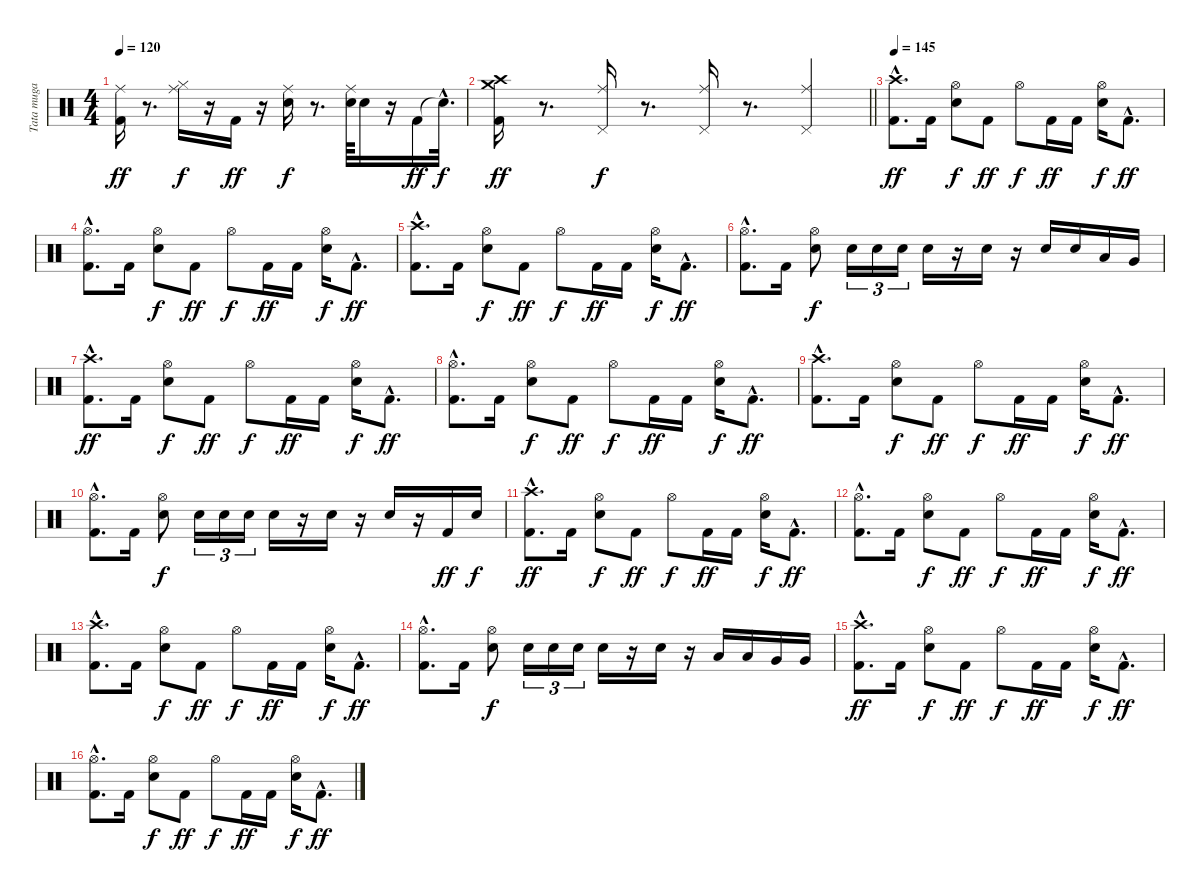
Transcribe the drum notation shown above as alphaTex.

\track ("Tata muga" "Tata muga") {instrument percussion}
\staff {score}
\articulation defaults
\ts (4 4)
\tempo 120
\clef neutral
\ks c
("Ride (middle)" "Kick (hit) 2").16{dy ff} r.8{d} ("Hi-Hat (closed)" "Ride (middle)").16{dy f} r.16 "Kick (hit) 2".16{dy ff} r.16 ("Ride (middle)" "Electric Snare (hit)").16{dy f} r.8{d} ("Ride (middle)" "Electric Snare (hit)").64 "Electric Snare (hit)".16 r.16 "Kick (hit) 2".16{dy ff} "Snare (hit)"{hac t}.32{d dy f} |
\barLineRight lightlight
("Crash medium (hit)" "Crash high (hit)" "Kick (hit) 2").16{dy ff} r.8{d} ("Ride (middle)" "Pedal Hi-Hat (hit)").16{dy f} r.8{d} ("Ride (middle)" "Pedal Hi-Hat (hit)").16 r.8{d} ("Ride (middle)" "Pedal Hi-Hat (hit)").4 |
\tempo 145
("Crash high (hit)"{hac} "Kick (hit) 2"{hac}).8{d dy ff} "Kick (hit) 2".16 ("Hi-Hat (open)" "Electric Snare (hit)").8{dy f} "Kick (hit) 2".8{dy ff} "Hi-Hat (open)".8{dy f} "Kick (hit) 2".16{dy ff} "Kick (hit) 2".16 ("Hi-Hat (open)" "Electric Snare (hit)").16{dy f} "Kick (hit) 2"{hac}.8{d dy ff} |
("Hi-Hat (open)"{hac} "Kick (hit) 2"{hac}).8{d} "Kick (hit) 2".16 ("Hi-Hat (open)" "Electric Snare (hit)").8{dy f} "Kick (hit) 2".8{dy ff} "Hi-Hat (open)".8{dy f} "Kick (hit) 2".16{dy ff} "Kick (hit) 2".16 ("Hi-Hat (open)" "Electric Snare (hit)").16{dy f} "Kick (hit) 2"{hac}.8{d dy ff} |
("Crash high (hit)"{hac} "Kick (hit) 2"{hac}).8{d} "Kick (hit) 2".16 ("Hi-Hat (open)" "Electric Snare (hit)").8{dy f} "Kick (hit) 2".8{dy ff} "Hi-Hat (open)".8{dy f} "Kick (hit) 2".16{dy ff} "Kick (hit) 2".16 ("Hi-Hat (open)" "Electric Snare (hit)").16{dy f} "Kick (hit) 2"{hac}.8{d dy ff} |
("Hi-Hat (open)"{hac} "Kick (hit) 2"{hac}).8{d} "Kick (hit) 2".16 ("Hi-Hat (open)" "Electric Snare (hit)").8{dy f} "Electric Snare (hit)".16{tu (3 2)} "Electric Snare (hit)".16{tu (3 2)} "Electric Snare (hit)".16{tu (3 2)} "Electric Snare (hit)".16 r.16 "Electric Snare (hit)".16 r.16 "Electric Snare (hit)".16 "Electric Snare (hit)".16 "Low Tom (hit)".16 "Very Low Tom (hit)".16 |
("Crash high (hit)"{hac} "Kick (hit) 2"{hac}).8{d dy ff} "Kick (hit) 2".16 ("Hi-Hat (open)" "Electric Snare (hit)").8{dy f} "Kick (hit) 2".8{dy ff} "Hi-Hat (open)".8{dy f} "Kick (hit) 2".16{dy ff} "Kick (hit) 2".16 ("Hi-Hat (open)" "Electric Snare (hit)").16{dy f} "Kick (hit) 2"{hac}.8{d dy ff} |
("Hi-Hat (open)"{hac} "Kick (hit) 2"{hac}).8{d} "Kick (hit) 2".16 ("Hi-Hat (open)" "Electric Snare (hit)").8{dy f} "Kick (hit) 2".8{dy ff} "Hi-Hat (open)".8{dy f} "Kick (hit) 2".16{dy ff} "Kick (hit) 2".16 ("Hi-Hat (open)" "Electric Snare (hit)").16{dy f} "Kick (hit) 2"{hac}.8{d dy ff} |
("Crash high (hit)"{hac} "Kick (hit) 2"{hac}).8{d} "Kick (hit) 2".16 ("Hi-Hat (open)" "Electric Snare (hit)").8{dy f} "Kick (hit) 2".8{dy ff} "Hi-Hat (open)".8{dy f} "Kick (hit) 2".16{dy ff} "Kick (hit) 2".16 ("Hi-Hat (open)" "Electric Snare (hit)").16{dy f} "Kick (hit) 2"{hac}.8{d dy ff} |
("Hi-Hat (open)"{hac} "Kick (hit) 2"{hac}).8{d} "Kick (hit) 2".16 ("Hi-Hat (open)" "Electric Snare (hit)").8{dy f} "Electric Snare (hit)".16{tu (3 2)} "Electric Snare (hit)".16{tu (3 2)} "Electric Snare (hit)".16{tu (3 2)} "Electric Snare (hit)".16 r.16 "Electric Snare (hit)".16 r.16 "Electric Snare (hit)".16 r.16 "Kick (hit) 2".16{dy ff} "Electric Snare (hit)".16{dy f} |
("Crash high (hit)"{hac} "Kick (hit) 2"{hac}).8{d dy ff} "Kick (hit) 2".16 ("Hi-Hat (open)" "Electric Snare (hit)").8{dy f} "Kick (hit) 2".8{dy ff} "Hi-Hat (open)".8{dy f} "Kick (hit) 2".16{dy ff} "Kick (hit) 2".16 ("Hi-Hat (open)" "Electric Snare (hit)").16{dy f} "Kick (hit) 2"{hac}.8{d dy ff} |
("Hi-Hat (open)"{hac} "Kick (hit) 2"{hac}).8{d} "Kick (hit) 2".16 ("Hi-Hat (open)" "Electric Snare (hit)").8{dy f} "Kick (hit) 2".8{dy ff} "Hi-Hat (open)".8{dy f} "Kick (hit) 2".16{dy ff} "Kick (hit) 2".16 ("Hi-Hat (open)" "Electric Snare (hit)").16{dy f} "Kick (hit) 2"{hac}.8{d dy ff} |
("Crash high (hit)"{hac} "Kick (hit) 2"{hac}).8{d} "Kick (hit) 2".16 ("Hi-Hat (open)" "Electric Snare (hit)").8{dy f} "Kick (hit) 2".8{dy ff} "Hi-Hat (open)".8{dy f} "Kick (hit) 2".16{dy ff} "Kick (hit) 2".16 ("Hi-Hat (open)" "Electric Snare (hit)").16{dy f} "Kick (hit) 2"{hac}.8{d dy ff} |
("Hi-Hat (open)"{hac} "Kick (hit) 2"{hac}).8{d} "Kick (hit) 2".16 ("Hi-Hat (open)" "Electric Snare (hit)").8{dy f} "Electric Snare (hit)".16{tu (3 2)} "Electric Snare (hit)".16{tu (3 2)} "Electric Snare (hit)".16{tu (3 2)} "Electric Snare (hit)".16 r.16 "Electric Snare (hit)".16 r.16 "Low Tom (hit)".16 "Low Tom (hit)".16 "Very Low Tom (hit)".16 "Very Low Tom (hit)".16 |
("Crash high (hit)"{hac} "Kick (hit) 2"{hac}).8{d dy ff} "Kick (hit) 2".16 ("Hi-Hat (open)" "Electric Snare (hit)").8{dy f} "Kick (hit) 2".8{dy ff} "Hi-Hat (open)".8{dy f} "Kick (hit) 2".16{dy ff} "Kick (hit) 2".16 ("Hi-Hat (open)" "Electric Snare (hit)").16{dy f} "Kick (hit) 2"{hac}.8{d dy ff} |
("Hi-Hat (open)"{hac} "Kick (hit) 2"{hac}).8{d} "Kick (hit) 2".16 ("Hi-Hat (open)" "Electric Snare (hit)").8{dy f} "Kick (hit) 2".8{dy ff} "Hi-Hat (open)".8{dy f} "Kick (hit) 2".16{dy ff} "Kick (hit) 2".16 ("Hi-Hat (open)" "Electric Snare (hit)").16{dy f} "Kick (hit) 2"{hac}.8{d dy ff}
